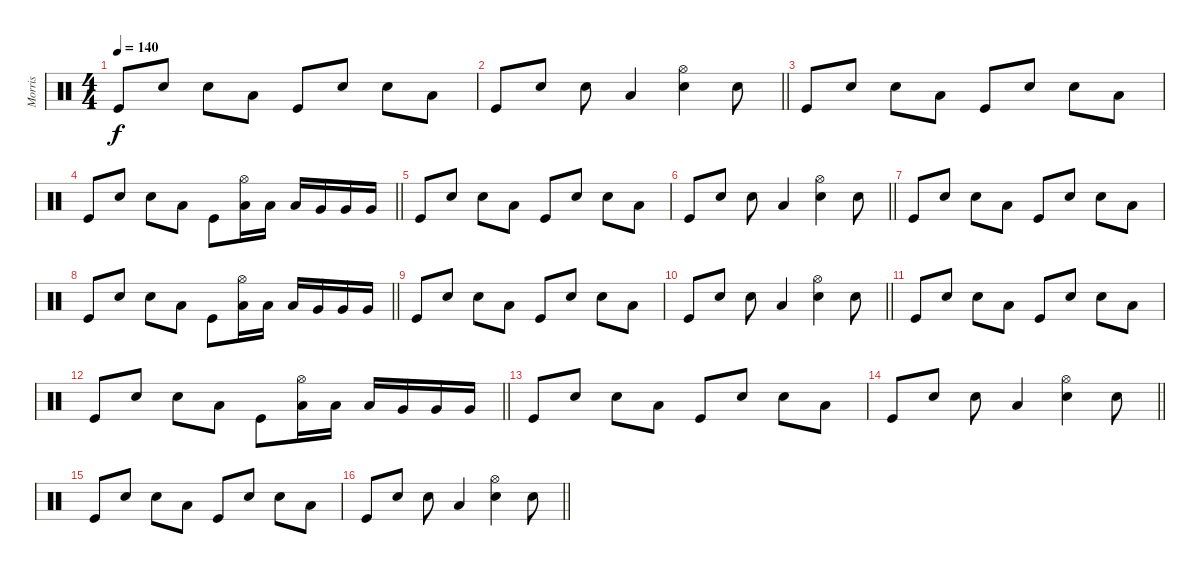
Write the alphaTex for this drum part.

\track ("Morris" "Morris") {instrument percussion}
\staff {score}
\articulation defaults
\ts (4 4)
\tempo 140
\clef neutral
\ks c "Kick (hit)".8{dy f} "Electric Snare (hit)".8 "Electric Snare (hit)".8 "Low Tom (hit)".8 "Kick (hit)".8 "Electric Snare (hit)".8 "Electric Snare (hit)".8 "Low Tom (hit)".8
|
\barLineRight lightlight "Kick (hit)".8 "Electric Snare (hit)".8 "Electric Snare (hit)".8 "Low Tom (hit)".4
("Hi-Hat (open)" "Electric Snare (hit)").4 "Electric Snare (hit)".8 |
"Kick (hit)".8 "Electric Snare (hit)".8 "Electric Snare (hit)".8 "Low Tom (hit)".8 "Kick (hit)".8 "Electric Snare (hit)".8 "Electric Snare (hit)".8 "Low Tom (hit)".8 |
\barLineRight lightlight "Kick (hit)".8 "Electric Snare (hit)".8 "Electric Snare (hit)".8 "Low Tom (hit)".8 "Kick (hit)".8
("Hi-Hat (open)" "Low Tom (hit)").16 "Low Tom (hit)".16 "Low Tom (hit)".16 "Very Low Tom (hit)".16 "Very Low Tom (hit)".16 "Very Low Tom (hit)".16 |
"Kick (hit)".8 "Electric Snare (hit)".8 "Electric Snare (hit)".8 "Low Tom (hit)".8 "Kick (hit)".8 "Electric Snare (hit)".8 "Electric Snare (hit)".8 "Low Tom (hit)".8 |
\barLineRight lightlight "Kick (hit)".8 "Electric Snare (hit)".8 "Electric Snare (hit)".8 "Low Tom (hit)".4
("Hi-Hat (open)" "Electric Snare (hit)").4 "Electric Snare (hit)".8 |
"Kick (hit)".8 "Electric Snare (hit)".8 "Electric Snare (hit)".8 "Low Tom (hit)".8 "Kick (hit)".8 "Electric Snare (hit)".8 "Electric Snare (hit)".8 "Low Tom (hit)".8 |
\barLineRight lightlight "Kick (hit)".8 "Electric Snare (hit)".8 "Electric Snare (hit)".8 "Low Tom (hit)".8 "Kick (hit)".8
("Hi-Hat (open)" "Low Tom (hit)").16 "Low Tom (hit)".16 "Low Tom (hit)".16 "Very Low Tom (hit)".16 "Very Low Tom (hit)".16 "Very Low Tom (hit)".16 |
"Kick (hit)".8 "Electric Snare (hit)".8 "Electric Snare (hit)".8 "Low Tom (hit)".8 "Kick (hit)".8 "Electric Snare (hit)".8 "Electric Snare (hit)".8 "Low Tom (hit)".8 |
\barLineRight lightlight "Kick (hit)".8 "Electric Snare (hit)".8 "Electric Snare (hit)".8 "Low Tom (hit)".4
("Hi-Hat (open)" "Electric Snare (hit)").4 "Electric Snare (hit)".8 |
"Kick (hit)".8 "Electric Snare (hit)".8 "Electric Snare (hit)".8 "Low Tom (hit)".8 "Kick (hit)".8 "Electric Snare (hit)".8 "Electric Snare (hit)".8 "Low Tom (hit)".8 |
\barLineRight lightlight "Kick (hit)".8 "Electric Snare (hit)".8 "Electric Snare (hit)".8 "Low Tom (hit)".8 "Kick (hit)".8
("Hi-Hat (open)" "Low Tom (hit)").16 "Low Tom (hit)".16 "Low Tom (hit)".16 "Very Low Tom (hit)".16 "Very Low Tom (hit)".16 "Very Low Tom (hit)".16 |
"Kick (hit)".8 "Electric Snare (hit)".8 "Electric Snare (hit)".8 "Low Tom (hit)".8 "Kick (hit)".8 "Electric Snare (hit)".8 "Electric Snare (hit)".8 "Low Tom (hit)".8 |
\barLineRight lightlight "Kick (hit)".8 "Electric Snare (hit)".8 "Electric Snare (hit)".8 "Low Tom (hit)".4
("Hi-Hat (open)" "Electric Snare (hit)").4 "Electric Snare (hit)".8 |
"Kick (hit)".8 "Electric Snare (hit)".8 "Electric Snare (hit)".8 "Low Tom (hit)".8 "Kick (hit)".8 "Electric Snare (hit)".8 "Electric Snare (hit)".8 "Low Tom (hit)".8 |
\barLineRight lightlight "Kick (hit)".8 "Electric Snare (hit)".8 "Electric Snare (hit)".8 "Low Tom (hit)".4
("Hi-Hat (open)" "Electric Snare (hit)").4 "Electric Snare (hit)".8
